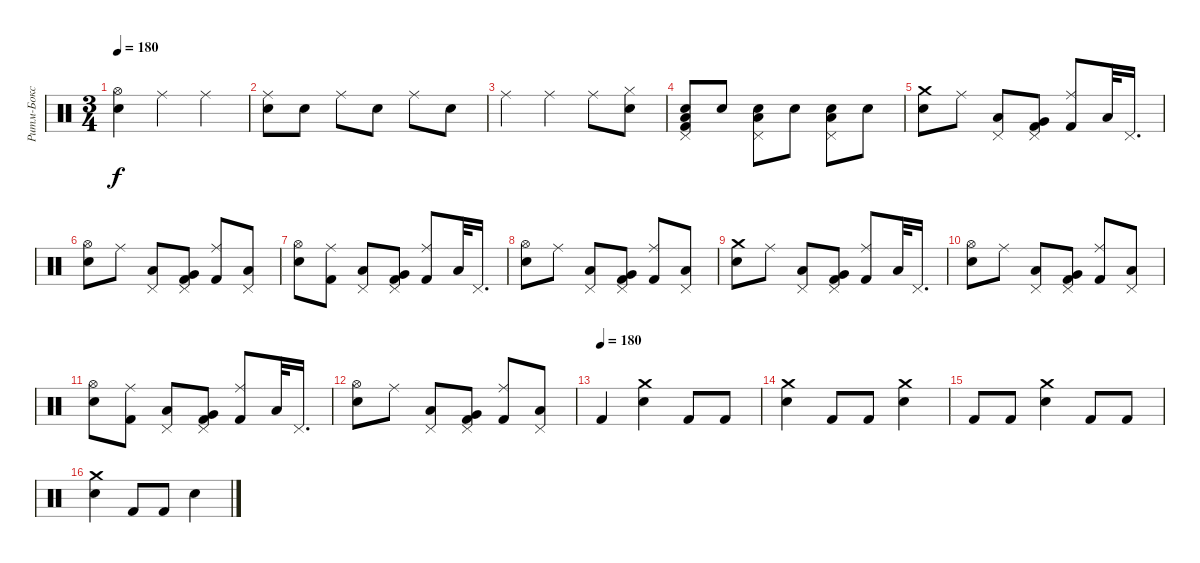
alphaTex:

\track ("Ритм-Бокс" "Ритм-Бокс") {instrument percussion}
\staff {score}
\articulation defaults
\ts (3 4)
\tempo 180
\clef neutral
\ks c
("Hi-Hat (open)" "Electric Snare (hit)").4{dy f} "Ride (middle)".4 "Ride (middle)".4 |
("Ride (middle)" "Electric Snare (hit)").8 "Electric Snare (hit)".8 "Ride (middle)".8 "Electric Snare (hit)".8 "Ride (middle)".8 "Electric Snare (hit)".8 |
"Ride (middle)".4 "Ride (middle)".4 "Ride (middle)".8 ("Hi-Hat (closed)" "Snare (hit) 2").8 |
("Pedal Hi-Hat (hit)" "Snare (hit) 2" "Low Floor Tom (hit)" "Kick (hit) 2").8 "Snare (hit) 2".8 ("Pedal Hi-Hat (hit)" "Snare (hit) 2" "Low Floor Tom (hit)").8 "Snare (hit) 2".8 ("Pedal Hi-Hat (hit)" "Snare (hit) 2" "Low Floor Tom (hit)").8 "Snare (hit) 2".8 |
("Crash medium (hit)" "Snare (hit) 2").8 "Ride (middle)".8 ("Pedal Hi-Hat (hit)" "Low Floor Tom (hit)").8 ("Pedal Hi-Hat (hit)" "Very Low Tom (hit)" "Kick (hit) 2").8 ("Ride (middle)" "Kick (hit) 2").8 "Low Floor Tom (hit)".32 "Pedal Hi-Hat (hit)".16{d} |
("Hi-Hat (open)" "Snare (hit) 2").8 "Ride (middle)".8 ("Pedal Hi-Hat (hit)" "Low Floor Tom (hit)").8 ("Pedal Hi-Hat (hit)" "Very Low Tom (hit)" "Kick (hit) 2").8 ("Ride (middle)" "Kick (hit) 2").8 ("Pedal Hi-Hat (hit)" "Low Floor Tom (hit)").8 |
("Hi-Hat (open)" "Snare (hit) 2").8 ("Ride (middle)" "Kick (hit) 2").8 ("Pedal Hi-Hat (hit)" "Low Floor Tom (hit)").8 ("Pedal Hi-Hat (hit)" "Very Low Tom (hit)" "Kick (hit) 2").8 ("Ride (middle)" "Kick (hit) 2").8 "Low Floor Tom (hit)".32 "Pedal Hi-Hat (hit)".16{d} |
("Hi-Hat (open)" "Snare (hit) 2").8 "Ride (middle)".8 ("Pedal Hi-Hat (hit)" "Low Floor Tom (hit)").8 ("Pedal Hi-Hat (hit)" "Very Low Tom (hit)" "Kick (hit) 2").8 ("Ride (middle)" "Kick (hit) 2").8 ("Pedal Hi-Hat (hit)" "Low Floor Tom (hit)").8 |
("Crash medium (hit)" "Snare (hit) 2").8 "Ride (middle)".8 ("Pedal Hi-Hat (hit)" "Low Floor Tom (hit)").8 ("Pedal Hi-Hat (hit)" "Very Low Tom (hit)" "Kick (hit) 2").8 ("Ride (middle)" "Kick (hit) 2").8 "Low Floor Tom (hit)".32 "Pedal Hi-Hat (hit)".16{d} |
("Hi-Hat (open)" "Snare (hit) 2").8 "Ride (middle)".8 ("Pedal Hi-Hat (hit)" "Low Floor Tom (hit)").8 ("Pedal Hi-Hat (hit)" "Very Low Tom (hit)" "Kick (hit) 2").8 ("Ride (middle)" "Kick (hit) 2").8 ("Pedal Hi-Hat (hit)" "Low Floor Tom (hit)").8 |
("Hi-Hat (open)" "Snare (hit) 2").8 ("Ride (middle)" "Kick (hit) 2").8 ("Pedal Hi-Hat (hit)" "Low Floor Tom (hit)").8 ("Pedal Hi-Hat (hit)" "Very Low Tom (hit)" "Kick (hit) 2").8 ("Ride (middle)" "Kick (hit) 2").8 "Low Floor Tom (hit)".32 "Pedal Hi-Hat (hit)".16{d} |
("Hi-Hat (open)" "Snare (hit) 2").8 "Ride (middle)".8 ("Pedal Hi-Hat (hit)" "Low Floor Tom (hit)").8 ("Pedal Hi-Hat (hit)" "Very Low Tom (hit)" "Kick (hit) 2").8 ("Ride (middle)" "Kick (hit) 2").8 ("Pedal Hi-Hat (hit)" "Low Floor Tom (hit)").8 |
\tempo (180)
"Kick (hit) 2".4 ("Crash medium (hit)" "Snare (hit) 2").4 "Kick (hit) 2".8 "Kick (hit) 2".8 |
("Crash medium (hit)" "Snare (hit) 2").4 "Kick (hit) 2".8 "Kick (hit) 2".8 ("Crash medium (hit)" "Snare (hit) 2").4 |
"Kick (hit) 2".8 "Kick (hit) 2".8 ("Crash medium (hit)" "Snare (hit) 2").4 "Kick (hit) 2".8 "Kick (hit) 2".8 |
("Crash medium (hit)" "Snare (hit) 2").4 "Kick (hit) 2".8 "Kick (hit) 2".8 "Snare (hit) 2".4
